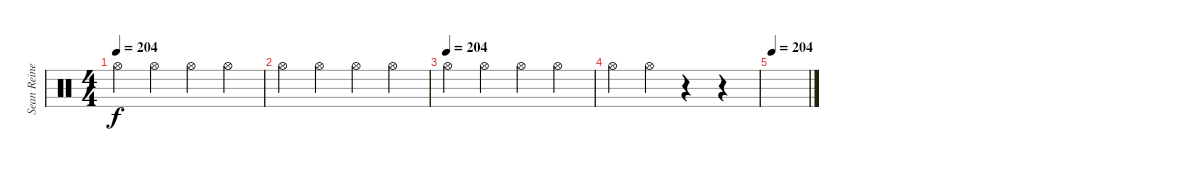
\track ("Sean Reinert" "Sean Reine") {instrument percussion}
\staff {score}
\articulation defaults
\ts (4 4)
\tempo 204
\clef neutral
\ks c "Hi-Hat (open)".4{dy f} "Hi-Hat (open)".4 "Hi-Hat (open)".4 "Hi-Hat (open)".4
|
"Hi-Hat (open)".4 "Hi-Hat (open)".4 "Hi-Hat (open)".4 "Hi-Hat (open)".4 |
\tempo (204)
"Hi-Hat (open)".4 "Hi-Hat (open)".4 "Hi-Hat (open)".4 "Hi-Hat (open)".4 |
"Hi-Hat (open)".4 "Hi-Hat (open)".4 r.4 r.4 |
\tempo 204
